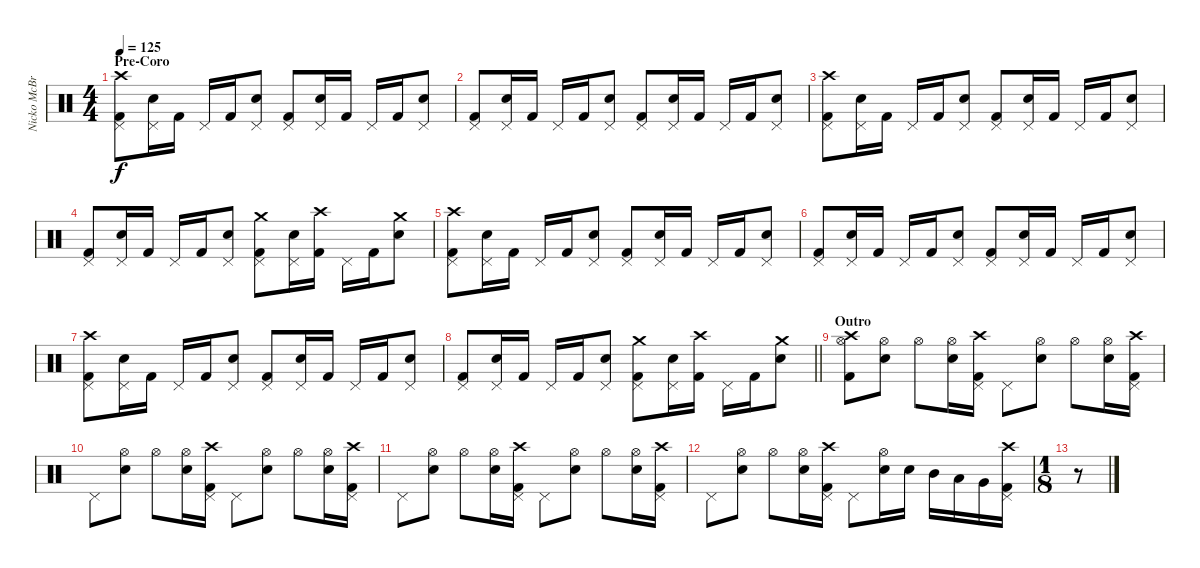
\track ("Nicko McBrain" "Nicko McBr") {instrument percussion}
\staff {score}
\articulation defaults
\ts (4 4)
\section ("" "Pre-Coro")
\tempo 125
\clef neutral
\ks c
("Kick (hit) 2" "Pedal Hi-Hat (hit)" "Crash high (hit)").8{dy f} ("Snare (hit) 2" "Pedal Hi-Hat (hit)").16 "Kick (hit) 2".16 "Pedal Hi-Hat (hit)".16 "Kick (hit) 2".16 ("Snare (hit) 2" "Pedal Hi-Hat (hit)").8 ("Kick (hit) 2" "Pedal Hi-Hat (hit)").8 ("Snare (hit) 2" "Pedal Hi-Hat (hit)").16 "Kick (hit) 2".16 "Pedal Hi-Hat (hit)".16 "Kick (hit) 2".16 ("Snare (hit) 2" "Pedal Hi-Hat (hit)").8 |
("Kick (hit) 2" "Pedal Hi-Hat (hit)").8 ("Snare (hit) 2" "Pedal Hi-Hat (hit)").16 "Kick (hit) 2".16 "Pedal Hi-Hat (hit)".16 "Kick (hit) 2".16 ("Snare (hit) 2" "Pedal Hi-Hat (hit)").8 ("Kick (hit) 2" "Pedal Hi-Hat (hit)").8 ("Snare (hit) 2" "Pedal Hi-Hat (hit)").16 "Kick (hit) 2".16 "Pedal Hi-Hat (hit)".16 "Kick (hit) 2".16 ("Snare (hit) 2" "Pedal Hi-Hat (hit)").8 |
("Kick (hit) 2" "Pedal Hi-Hat (hit)" "Crash high (hit)").8 ("Snare (hit) 2" "Pedal Hi-Hat (hit)").16 "Kick (hit) 2".16 "Pedal Hi-Hat (hit)".16 "Kick (hit) 2".16 ("Snare (hit) 2" "Pedal Hi-Hat (hit)").8 ("Kick (hit) 2" "Pedal Hi-Hat (hit)").8 ("Snare (hit) 2" "Pedal Hi-Hat (hit)").16 "Kick (hit) 2".16 "Pedal Hi-Hat (hit)".16 "Kick (hit) 2".16 ("Snare (hit) 2" "Pedal Hi-Hat (hit)").8 |
("Kick (hit) 2" "Pedal Hi-Hat (hit)").8 ("Snare (hit) 2" "Pedal Hi-Hat (hit)").16 "Kick (hit) 2".16 "Pedal Hi-Hat (hit)".16 "Kick (hit) 2".16 ("Snare (hit) 2" "Pedal Hi-Hat (hit)").8 ("Kick (hit) 2" "Pedal Hi-Hat (hit)" "Crash medium (hit)").8 ("Snare (hit) 2" "Pedal Hi-Hat (hit)").16 ("Kick (hit) 2" "Crash high (hit)").16 "Pedal Hi-Hat (hit)".16 "Kick (hit) 2".16 ("Snare (hit) 2" "Crash medium (hit)").8 |
("Kick (hit) 2" "Pedal Hi-Hat (hit)" "Crash high (hit)").8 ("Snare (hit) 2" "Pedal Hi-Hat (hit)").16 "Kick (hit) 2".16 "Pedal Hi-Hat (hit)".16 "Kick (hit) 2".16 ("Snare (hit) 2" "Pedal Hi-Hat (hit)").8 ("Kick (hit) 2" "Pedal Hi-Hat (hit)").8 ("Snare (hit) 2" "Pedal Hi-Hat (hit)").16 "Kick (hit) 2".16 "Pedal Hi-Hat (hit)".16 "Kick (hit) 2".16 ("Snare (hit) 2" "Pedal Hi-Hat (hit)").8 |
("Kick (hit) 2" "Pedal Hi-Hat (hit)").8 ("Snare (hit) 2" "Pedal Hi-Hat (hit)").16 "Kick (hit) 2".16 "Pedal Hi-Hat (hit)".16 "Kick (hit) 2".16 ("Snare (hit) 2" "Pedal Hi-Hat (hit)").8 ("Kick (hit) 2" "Pedal Hi-Hat (hit)").8 ("Snare (hit) 2" "Pedal Hi-Hat (hit)").16 "Kick (hit) 2".16 "Pedal Hi-Hat (hit)".16 "Kick (hit) 2".16 ("Snare (hit) 2" "Pedal Hi-Hat (hit)").8 |
("Kick (hit) 2" "Pedal Hi-Hat (hit)" "Crash high (hit)").8 ("Snare (hit) 2" "Pedal Hi-Hat (hit)").16 "Kick (hit) 2".16 "Pedal Hi-Hat (hit)".16 "Kick (hit) 2".16 ("Snare (hit) 2" "Pedal Hi-Hat (hit)").8 ("Kick (hit) 2" "Pedal Hi-Hat (hit)").8 ("Snare (hit) 2" "Pedal Hi-Hat (hit)").16 "Kick (hit) 2".16 "Pedal Hi-Hat (hit)".16 "Kick (hit) 2".16 ("Snare (hit) 2" "Pedal Hi-Hat (hit)").8 |
\barLineRight lightlight
("Kick (hit) 2" "Pedal Hi-Hat (hit)").8 ("Snare (hit) 2" "Pedal Hi-Hat (hit)").16 "Kick (hit) 2".16 "Pedal Hi-Hat (hit)".16 "Kick (hit) 2".16 ("Snare (hit) 2" "Pedal Hi-Hat (hit)").8 ("Kick (hit) 2" "Pedal Hi-Hat (hit)" "Crash medium (hit)").8 ("Snare (hit) 2" "Pedal Hi-Hat (hit)").16 ("Kick (hit) 2" "Crash high (hit)").16 "Pedal Hi-Hat (hit)".16 "Kick (hit) 2".16 ("Snare (hit) 2" "Crash medium (hit)").8 |
\section ("" "Outro")
("Kick (hit) 2" "Hi-Hat (open)" "Crash high (hit)").8 ("Snare (hit) 2" "Hi-Hat (open)").8 "Hi-Hat (open)".8 ("Snare (hit) 2" "Hi-Hat (open)").16 ("Kick (hit) 2" "Pedal Hi-Hat (hit)" "Crash high (hit)").16 "Pedal Hi-Hat (hit)".8 ("Snare (hit) 2" "Hi-Hat (open)").8 "Hi-Hat (open)".8 ("Snare (hit) 2" "Hi-Hat (open)").16 ("Kick (hit) 2" "Pedal Hi-Hat (hit)" "Crash high (hit)").16 |
"Pedal Hi-Hat (hit)".8 ("Snare (hit) 2" "Hi-Hat (open)").8 "Hi-Hat (open)".8 ("Snare (hit) 2" "Hi-Hat (open)").16 ("Kick (hit) 2" "Pedal Hi-Hat (hit)" "Crash high (hit)").16 "Pedal Hi-Hat (hit)".8 ("Snare (hit) 2" "Hi-Hat (open)").8 "Hi-Hat (open)".8 ("Snare (hit) 2" "Hi-Hat (open)").16 ("Kick (hit) 2" "Pedal Hi-Hat (hit)" "Crash high (hit)").16 |
"Pedal Hi-Hat (hit)".8 ("Snare (hit) 2" "Hi-Hat (open)").8 "Hi-Hat (open)".8 ("Snare (hit) 2" "Hi-Hat (open)").16 ("Kick (hit) 2" "Pedal Hi-Hat (hit)" "Crash high (hit)").16 "Pedal Hi-Hat (hit)".8 ("Snare (hit) 2" "Hi-Hat (open)").8 "Hi-Hat (open)".8 ("Snare (hit) 2" "Hi-Hat (open)").16 ("Kick (hit) 2" "Pedal Hi-Hat (hit)" "Crash high (hit)").16 |
"Pedal Hi-Hat (hit)".8 ("Snare (hit) 2" "Hi-Hat (open)").8 "Hi-Hat (open)".8 ("Snare (hit) 2" "Hi-Hat (open)").16 ("Kick (hit) 2" "Pedal Hi-Hat (hit)" "Crash high (hit)").16 "Pedal Hi-Hat (hit)".8 ("Snare (hit) 2" "Hi-Hat (open)").16 "Snare (hit) 2".16 "Mid Tom (hit)".16 "Low Tom (hit)".16 "Very Low Tom (hit)".16 ("Kick (hit) 2" "Pedal Hi-Hat (hit)" "Crash high (hit)").16 |
\ts (1 8)
r.8
